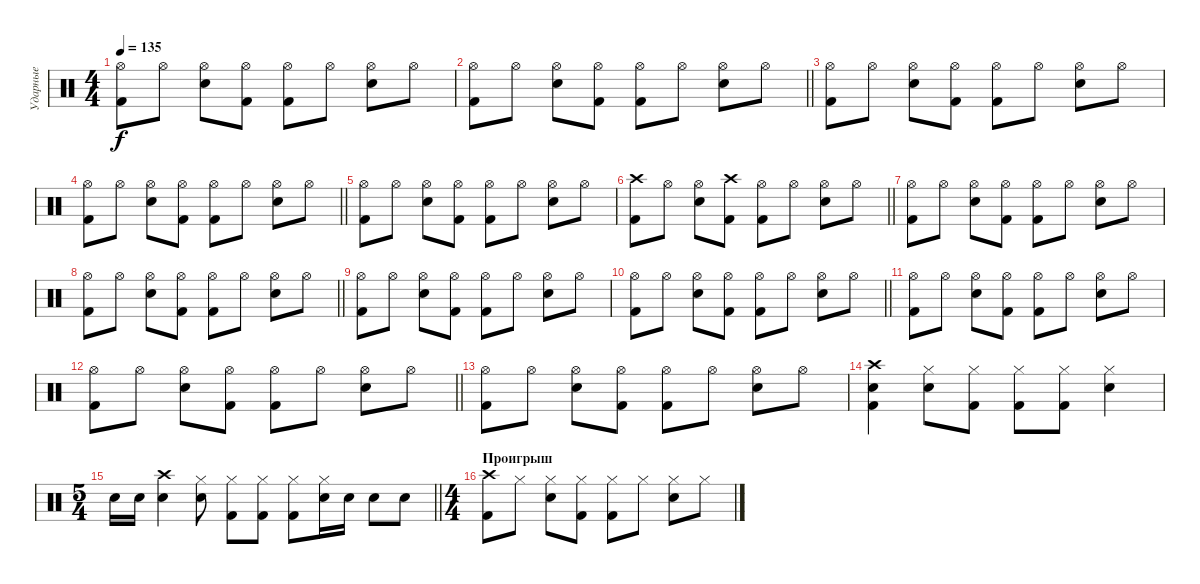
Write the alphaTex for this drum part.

\track ("Ударные" "Ударные") {instrument percussion}
\staff {score}
\articulation defaults
\ts (4 4)
\tempo 135
\clef neutral
\ks c
("Hi-Hat (open)" "Kick (hit) 2").8{dy f} "Hi-Hat (open)".8 ("Hi-Hat (open)" "Snare (hit) 2").8 ("Hi-Hat (open)" "Kick (hit) 2").8 ("Hi-Hat (open)" "Kick (hit) 2").8 "Hi-Hat (open)".8 ("Hi-Hat (open)" "Snare (hit) 2").8 "Hi-Hat (open)".8 |
\barLineRight lightlight
("Hi-Hat (open)" "Kick (hit) 2").8 "Hi-Hat (open)".8 ("Hi-Hat (open)" "Snare (hit) 2").8 ("Hi-Hat (open)" "Kick (hit) 2").8 ("Hi-Hat (open)" "Kick (hit) 2").8 "Hi-Hat (open)".8 ("Hi-Hat (open)" "Snare (hit) 2").8 "Hi-Hat (open)".8 |
("Hi-Hat (open)" "Kick (hit) 2").8 "Hi-Hat (open)".8 ("Hi-Hat (open)" "Snare (hit) 2").8 ("Hi-Hat (open)" "Kick (hit) 2").8 ("Hi-Hat (open)" "Kick (hit) 2").8 "Hi-Hat (open)".8 ("Hi-Hat (open)" "Snare (hit) 2").8 "Hi-Hat (open)".8 |
\barLineRight lightlight
("Hi-Hat (open)" "Kick (hit) 2").8 "Hi-Hat (open)".8 ("Hi-Hat (open)" "Snare (hit) 2").8 ("Hi-Hat (open)" "Kick (hit) 2").8 ("Hi-Hat (open)" "Kick (hit) 2").8 "Hi-Hat (open)".8 ("Hi-Hat (open)" "Snare (hit) 2").8 "Hi-Hat (open)".8 |
("Hi-Hat (open)" "Kick (hit) 2").8 "Hi-Hat (open)".8 ("Hi-Hat (open)" "Snare (hit) 2").8 ("Hi-Hat (open)" "Kick (hit) 2").8 ("Hi-Hat (open)" "Kick (hit) 2").8 "Hi-Hat (open)".8 ("Hi-Hat (open)" "Snare (hit) 2").8 "Hi-Hat (open)".8 |
\barLineRight lightlight
("Crash high (hit)" "Kick (hit) 2").8 "Hi-Hat (open)".8 ("Hi-Hat (open)" "Snare (hit) 2").8 ("Crash high (hit)" "Kick (hit) 2").8 ("Hi-Hat (open)" "Kick (hit) 2").8 "Hi-Hat (open)".8 ("Hi-Hat (open)" "Snare (hit) 2").8 "Hi-Hat (open)".8 |
("Hi-Hat (open)" "Kick (hit) 2").8 "Hi-Hat (open)".8 ("Hi-Hat (open)" "Snare (hit) 2").8 ("Hi-Hat (open)" "Kick (hit) 2").8 ("Hi-Hat (open)" "Kick (hit) 2").8 "Hi-Hat (open)".8 ("Hi-Hat (open)" "Snare (hit) 2").8 "Hi-Hat (open)".8 |
\barLineRight lightlight
("Hi-Hat (open)" "Kick (hit) 2").8 "Hi-Hat (open)".8 ("Hi-Hat (open)" "Snare (hit) 2").8 ("Hi-Hat (open)" "Kick (hit) 2").8 ("Hi-Hat (open)" "Kick (hit) 2").8 "Hi-Hat (open)".8 ("Hi-Hat (open)" "Snare (hit) 2").8 "Hi-Hat (open)".8 |
("Hi-Hat (open)" "Kick (hit) 2").8 "Hi-Hat (open)".8 ("Hi-Hat (open)" "Snare (hit) 2").8 ("Hi-Hat (open)" "Kick (hit) 2").8 ("Hi-Hat (open)" "Kick (hit) 2").8 "Hi-Hat (open)".8 ("Hi-Hat (open)" "Snare (hit) 2").8 "Hi-Hat (open)".8 |
\barLineRight lightlight
("Hi-Hat (open)" "Kick (hit) 2").8 "Hi-Hat (open)".8 ("Hi-Hat (open)" "Snare (hit) 2").8 ("Hi-Hat (open)" "Kick (hit) 2").8 ("Hi-Hat (open)" "Kick (hit) 2").8 "Hi-Hat (open)".8 ("Hi-Hat (open)" "Snare (hit) 2").8 "Hi-Hat (open)".8 |
("Hi-Hat (open)" "Kick (hit) 2").8 "Hi-Hat (open)".8 ("Hi-Hat (open)" "Snare (hit) 2").8 ("Hi-Hat (open)" "Kick (hit) 2").8 ("Hi-Hat (open)" "Kick (hit) 2").8 "Hi-Hat (open)".8 ("Hi-Hat (open)" "Snare (hit) 2").8 "Hi-Hat (open)".8 |
\barLineRight lightlight
("Hi-Hat (open)" "Kick (hit) 2").8 "Hi-Hat (open)".8 ("Hi-Hat (open)" "Snare (hit) 2").8 ("Hi-Hat (open)" "Kick (hit) 2").8 ("Hi-Hat (open)" "Kick (hit) 2").8 "Hi-Hat (open)".8 ("Hi-Hat (open)" "Snare (hit) 2").8 "Hi-Hat (open)".8 |
("Hi-Hat (open)" "Kick (hit) 2").8 "Hi-Hat (open)".8 ("Hi-Hat (open)" "Snare (hit) 2").8 ("Hi-Hat (open)" "Kick (hit) 2").8 ("Hi-Hat (open)" "Kick (hit) 2").8 "Hi-Hat (open)".8 ("Hi-Hat (open)" "Snare (hit) 2").8 "Hi-Hat (open)".8 |
("Crash high (hit)" "Snare (hit) 2" "Kick (hit) 2").4 ("Hi-Hat (closed)" "Snare (hit) 2").8 ("Hi-Hat (closed)" "Kick (hit) 2").8 ("Hi-Hat (closed)" "Kick (hit) 2").8 ("Hi-Hat (closed)" "Kick (hit) 2").8 ("Hi-Hat (closed)" "Snare (hit) 2").4 |
\ts (5 4)
\barLineRight lightlight "Snare (hit) 2".16 "Snare (hit) 2".16
("Crash high (hit)" "Snare (hit) 2").4 ("Hi-Hat (closed)" "Snare (hit) 2").8 ("Hi-Hat (closed)" "Kick (hit) 2").8 ("Hi-Hat (closed)" "Kick (hit) 2").8 ("Hi-Hat (closed)" "Kick (hit) 2").8 ("Hi-Hat (closed)" "Snare (hit) 2").16 "Snare (hit) 2".16 "Snare (hit) 2".8 "Snare (hit) 2".8 |
\ts (4 4)
\section ("" "Проигрыш")
("Crash high (hit)" "Kick (hit) 2").8 "Hi-Hat (closed)".8 ("Hi-Hat (closed)" "Snare (hit) 2").8 ("Hi-Hat (closed)" "Kick (hit) 2").8 ("Hi-Hat (closed)" "Kick (hit) 2").8 "Hi-Hat (closed)".8 ("Hi-Hat (closed)" "Snare (hit) 2").8 "Hi-Hat (closed)".8
